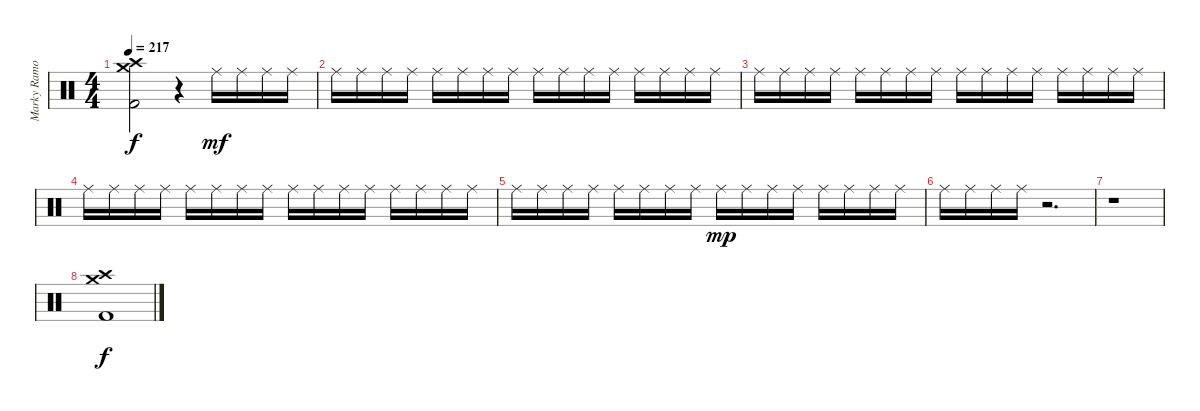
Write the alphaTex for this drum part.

\track ("Marky Ramone" "Marky Ramo") {instrument percussion}
\staff {score}
\articulation defaults
\ts (4 4)
\tempo 217
\clef neutral
\ks c
("Crash high (hit)" "Crash medium (hit)" "Kick (hit) 2").2{dy f} r.4 "Ride (middle)".16{dy mf} "Ride (middle)".16 "Ride (middle)".16 "Ride (middle)".16 |
"Ride (middle)".16 "Ride (middle)".16 "Ride (middle)".16 "Ride (middle)".16 "Ride (middle)".16 "Ride (middle)".16 "Ride (middle)".16 "Ride (middle)".16 "Ride (middle)".16 "Ride (middle)".16 "Ride (middle)".16 "Ride (middle)".16 "Ride (middle)".16 "Ride (middle)".16 "Ride (middle)".16 "Ride (middle)".16 |
"Ride (middle)".16 "Ride (middle)".16 "Ride (middle)".16 "Ride (middle)".16 "Ride (middle)".16 "Ride (middle)".16 "Ride (middle)".16 "Ride (middle)".16 "Ride (middle)".16 "Ride (middle)".16 "Ride (middle)".16 "Ride (middle)".16 "Ride (middle)".16 "Ride (middle)".16 "Ride (middle)".16 "Ride (middle)".16 |
"Ride (middle)".16 "Ride (middle)".16 "Ride (middle)".16 "Ride (middle)".16 "Ride (middle)".16 "Ride (middle)".16 "Ride (middle)".16 "Ride (middle)".16 "Ride (middle)".16 "Ride (middle)".16 "Ride (middle)".16 "Ride (middle)".16 "Ride (middle)".16 "Ride (middle)".16 "Ride (middle)".16 "Ride (middle)".16 |
"Ride (middle)".16 "Ride (middle)".16 "Ride (middle)".16 "Ride (middle)".16 "Ride (middle)".16 "Ride (middle)".16 "Ride (middle)".16 "Ride (middle)".16 "Ride (middle)".16{dy mp} "Ride (middle)".16 "Ride (middle)".16 "Ride (middle)".16 "Ride (middle)".16 "Ride (middle)".16 "Ride (middle)".16 "Ride (middle)".16 |
"Ride (middle)".16 "Ride (middle)".16 "Ride (middle)".16 "Ride (middle)".16 r.2{d} |
r.1 |
("Crash high (hit)" "Crash medium (hit)" "Kick (hit) 2").1{dy f}
